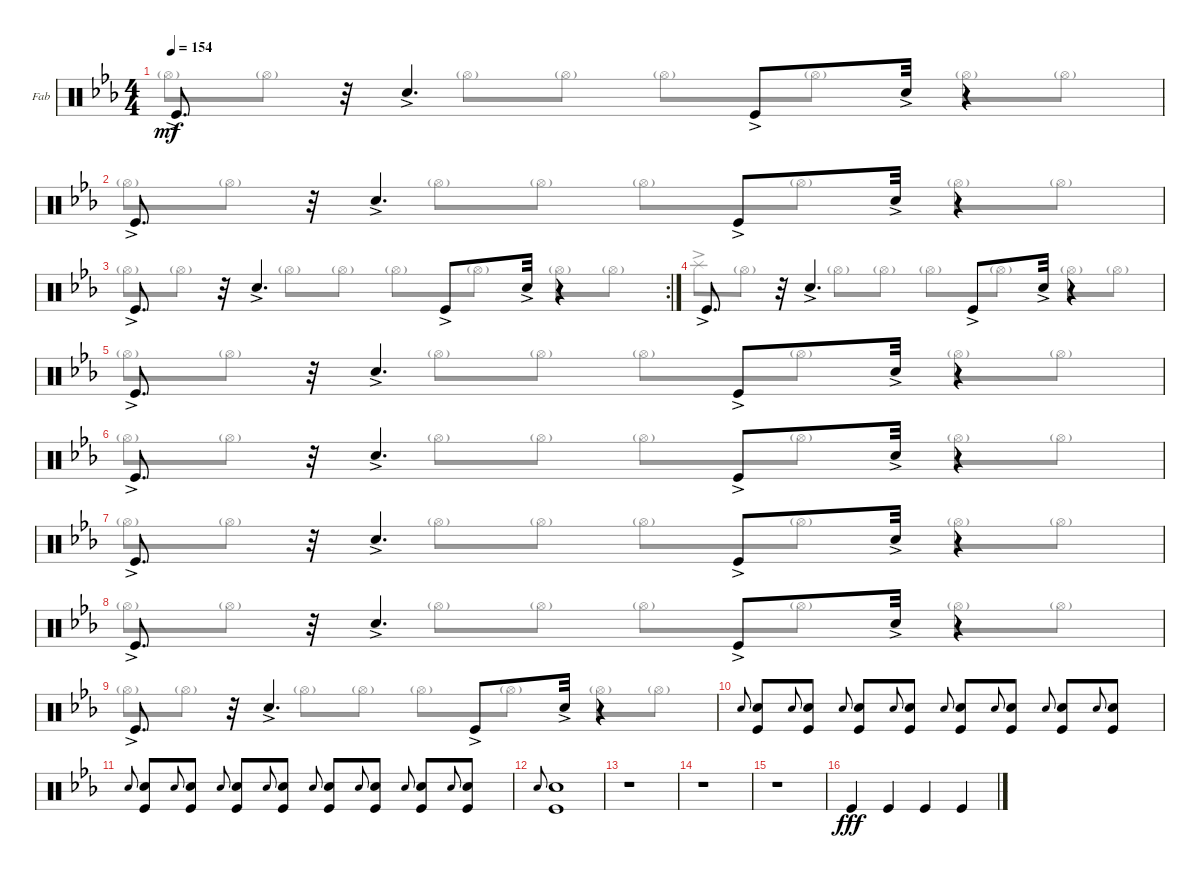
\defaultSystemsLayout 4
\bracketExtendMode groupsimilarinstruments
\firstSystemTrackNameOrientation horizontal
\otherSystemsTrackNameOrientation horizontal
\track ("Drums" "Fab") {instrument percussion}
\staff {score}
\articulation defaults
\voice
\ts (4 4)
\tempo 154
\clef neutral
\scale
0.47751
\ks eb "Kick (hit)"{ac}.8{d dy mf}
r.32 "Snare (hit) 2"{ac}.4{d} "Kick (hit)"{ac}.8 "Snare (hit) 2"{ac}.32 r.4 |
\scale
0.523051 "Kick (hit)"{ac}.8{d} r.32 "Snare (hit) 2"{ac}.4{d} "Kick (hit)"{ac}.8 "Snare (hit) 2"{ac}.32 r.4 |
\rc 2
\scale
0.47698 "Kick (hit)"{ac}.8{d} r.32 "Snare (hit) 2"{ac}.4{d} "Kick (hit)"{ac}.8 "Snare (hit) 2"{ac}.32 r.4 |
\scale
0.522443 "Kick (hit)"{ac}.8{d} r.32 "Snare (hit) 2"{ac}.4{d} "Kick (hit)"{ac}.8 "Snare (hit) 2"{ac}.32 r.4 |
\scale
0.477568 "Kick (hit)"{ac}.8{d} r.32 "Snare (hit) 2"{ac}.4{d} "Kick (hit)"{ac}.8 "Snare (hit) 2"{ac}.32 r.4 |
\scale
0.526771 "Kick (hit)"{ac}.8{d} r.32 "Snare (hit) 2"{ac}.4{d} "Kick (hit)"{ac}.8 "Snare (hit) 2"{ac}.32 r.4 |
\scale
0.473243 "Kick (hit)"{ac}.8{d} r.32 "Snare (hit) 2"{ac}.4{d} "Kick (hit)"{ac}.8 "Snare (hit) 2"{ac}.32 r.4 |
\scale
0.528199 "Kick (hit)"{ac}.8{d} r.32 "Snare (hit) 2"{ac}.4{d} "Kick (hit)"{ac}.8 "Snare (hit) 2"{ac}.32 r.4 |
\scale
0.471818 "Kick (hit)"{ac}.8{d} r.32 "Snare (hit) 2"{ac}.4{d} "Kick (hit)"{ac}.8 "Snare (hit) 2"{ac}.32 r.4 |
"Snare (hit) 2".8{gr onbeat} ("Snare (hit) 2" "Kick (hit)").8 "Snare (hit) 2".8{gr onbeat} ("Snare (hit) 2" "Kick (hit)").8 "Snare (hit) 2".8{gr onbeat} ("Snare (hit) 2" "Kick (hit)").8 "Snare (hit) 2".8{gr onbeat} ("Snare (hit) 2" "Kick (hit)").8 "Snare (hit) 2".8{gr onbeat} ("Snare (hit) 2" "Kick (hit)").8 "Snare (hit) 2".8{gr onbeat} ("Snare (hit) 2" "Kick (hit)").8 "Snare (hit) 2".8{gr onbeat} ("Snare (hit) 2" "Kick (hit)").8 "Snare (hit) 2".8{gr onbeat} ("Snare (hit) 2" "Kick (hit)").8 |
\scale
0.815844 "Snare (hit) 2".8{gr onbeat} ("Snare (hit) 2" "Kick (hit)").8 "Snare (hit) 2".8{gr onbeat} ("Snare (hit) 2" "Kick (hit)").8 "Snare (hit) 2".8{gr onbeat} ("Snare (hit) 2" "Kick (hit)").8 "Snare (hit) 2".8{gr onbeat} ("Snare (hit) 2" "Kick (hit)").8 "Snare (hit) 2".8{gr onbeat} ("Snare (hit) 2" "Kick (hit)").8 "Snare (hit) 2".8{gr onbeat} ("Snare (hit) 2" "Kick (hit)").8 "Snare (hit) 2".8{gr onbeat} ("Snare (hit) 2" "Kick (hit)").8 "Snare (hit) 2".8{gr onbeat} ("Snare (hit) 2" "Kick (hit)").8 |
\scale
0.184259 "Snare (hit) 2".8{gr onbeat} ("Kick (hit)" "Snare (hit) 2").1 |
r.1 |
r.1 |
r.1 |
\scale
0.531774 "Kick (hit)".4{dy fff} "Kick (hit)".4 "Kick (hit)".4 "Kick (hit)".4
\voice
\clef neutral
\ottava regular
\simile none
\scale
0.47751
\ks eb "Hi-Hat (open)"{g}.8{dy mf} "Hi-Hat (open)"{g}.8 "Hi-Hat (open)"{g}.8 "Hi-Hat (open)"{g}.8 "Hi-Hat (open)"{g}.8 "Hi-Hat (open)"{g}.8 "Hi-Hat (open)"{g}.8 "Hi-Hat (open)"{g}.8
|
\scale
0.523051 "Hi-Hat (open)"{g}.8 "Hi-Hat (open)"{g}.8 "Hi-Hat (open)"{g}.8 "Hi-Hat (open)"{g}.8 "Hi-Hat (open)"{g}.8 "Hi-Hat (open)"{g}.8 "Hi-Hat (open)"{g}.8 "Hi-Hat (open)"{g}.8 |
\scale
0.47698 "Hi-Hat (open)"{g}.8 "Hi-Hat (open)"{g}.8 "Hi-Hat (open)"{g}.8 "Hi-Hat (open)"{g}.8 "Hi-Hat (open)"{g}.8 "Hi-Hat (open)"{g}.8 "Hi-Hat (open)"{g}.8 "Hi-Hat (open)"{g}.8 |
\scale
0.522443 "Splash (hit)"{ac}.8 "Hi-Hat (open)"{g}.8 "Hi-Hat (open)"{g}.8 "Hi-Hat (open)"{g}.8 "Hi-Hat (open)"{g}.8 "Hi-Hat (open)"{g}.8 "Hi-Hat (open)"{g}.8 "Hi-Hat (open)"{g}.8 |
\scale
0.477568 "Hi-Hat (open)"{g}.8 "Hi-Hat (open)"{g}.8 "Hi-Hat (open)"{g}.8 "Hi-Hat (open)"{g}.8 "Hi-Hat (open)"{g}.8 "Hi-Hat (open)"{g}.8 "Hi-Hat (open)"{g}.8 "Hi-Hat (open)"{g}.8 |
\scale
0.526771 "Hi-Hat (open)"{g}.8 "Hi-Hat (open)"{g}.8 "Hi-Hat (open)"{g}.8 "Hi-Hat (open)"{g}.8 "Hi-Hat (open)"{g}.8 "Hi-Hat (open)"{g}.8 "Hi-Hat (open)"{g}.8 "Hi-Hat (open)"{g}.8 |
\scale
0.473243 "Hi-Hat (open)"{g}.8 "Hi-Hat (open)"{g}.8 "Hi-Hat (open)"{g}.8 "Hi-Hat (open)"{g}.8 "Hi-Hat (open)"{g}.8 "Hi-Hat (open)"{g}.8 "Hi-Hat (open)"{g}.8 "Hi-Hat (open)"{g}.8 |
\scale
0.528199 "Hi-Hat (open)"{g}.8 "Hi-Hat (open)"{g}.8 "Hi-Hat (open)"{g}.8 "Hi-Hat (open)"{g}.8 "Hi-Hat (open)"{g}.8 "Hi-Hat (open)"{g}.8 "Hi-Hat (open)"{g}.8 "Hi-Hat (open)"{g}.8 |
\scale
0.471818 "Hi-Hat (open)"{g}.8 "Hi-Hat (open)"{g}.8 "Hi-Hat (open)"{g}.8 "Hi-Hat (open)"{g}.8 "Hi-Hat (open)"{g}.8 "Hi-Hat (open)"{g}.8 "Hi-Hat (open)"{g}.8 "Hi-Hat (open)"{g}.8 |
|
\scale
0.815844 |
\scale
0.184259 |
|
|
|
\scale
0.531774
